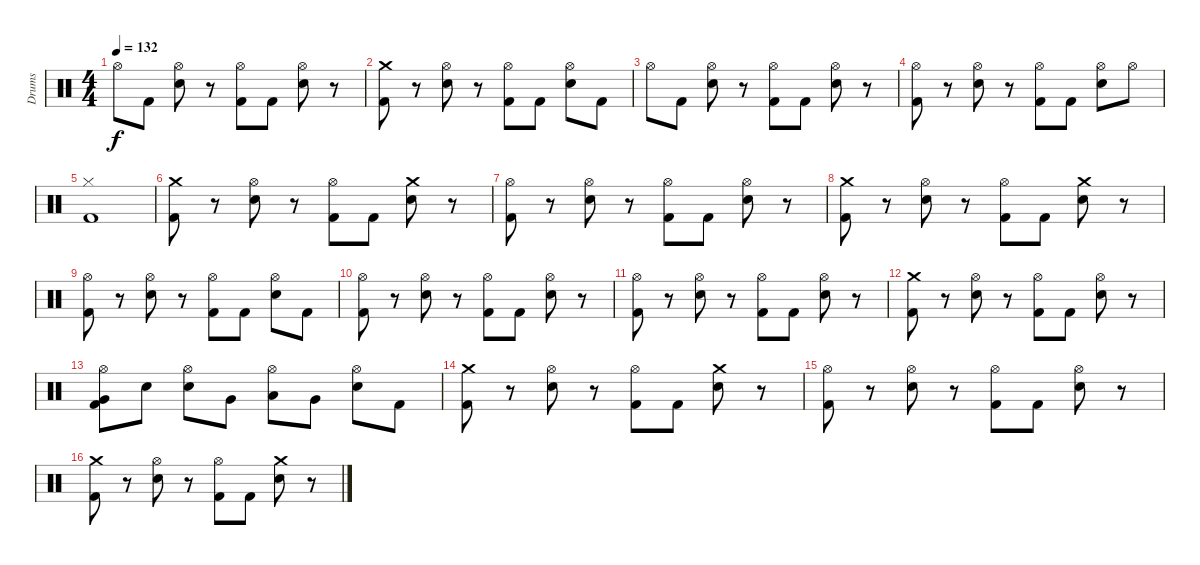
\track ("Drums" "Drums") {instrument percussion}
\staff {score}
\articulation defaults
\ts (4 4)
\tempo 132
\clef neutral
\ks c "Hi-Hat (open)".8{dy f} "Kick (hit) 2".8
("Snare (hit) 2" "Hi-Hat (open)").8 r.8 ("Kick (hit) 2" "Hi-Hat (open)").8 "Kick (hit) 2".8 ("Snare (hit) 2" "Hi-Hat (open)").8 r.8 |
("Kick (hit) 2" "Crash medium (hit)").8 r.8 ("Snare (hit) 2" "Hi-Hat (open)").8 r.8 ("Kick (hit) 2" "Hi-Hat (open)").8 "Kick (hit) 2".8 ("Snare (hit) 2" "Hi-Hat (open)").8 "Kick (hit) 2".8 |
"Hi-Hat (open)".8 "Kick (hit) 2".8 ("Snare (hit) 2" "Hi-Hat (open)").8 r.8 ("Kick (hit) 2" "Hi-Hat (open)").8 "Kick (hit) 2".8 ("Snare (hit) 2" "Hi-Hat (open)").8 r.8 |
("Kick (hit) 2" "Hi-Hat (open)").8 r.8 ("Snare (hit) 2" "Hi-Hat (open)").8 r.8 ("Kick (hit) 2" "Hi-Hat (open)").8 "Kick (hit) 2".8 ("Snare (hit) 2" "Hi-Hat (open)").8 "Hi-Hat (open)".8 |
("Kick (hit) 2" "Hi-Hat (closed)").1 |
("Kick (hit) 2" "Crash medium (hit)").8 r.8 ("Snare (hit) 2" "Hi-Hat (open)").8 r.8 ("Kick (hit) 2" "Hi-Hat (open)").8 "Kick (hit) 2".8 ("Snare (hit) 2" "Crash medium (hit)").8 r.8 |
("Kick (hit) 2" "Hi-Hat (open)").8 r.8 ("Snare (hit) 2" "Hi-Hat (open)").8 r.8 ("Kick (hit) 2" "Hi-Hat (open)").8 "Kick (hit) 2".8 ("Snare (hit) 2" "Hi-Hat (open)").8 r.8 |
("Kick (hit) 2" "Crash medium (hit)").8 r.8 ("Snare (hit) 2" "Hi-Hat (open)").8 r.8 ("Kick (hit) 2" "Hi-Hat (open)").8 "Kick (hit) 2".8 ("Snare (hit) 2" "Crash medium (hit)").8 r.8 |
("Kick (hit) 2" "Hi-Hat (open)").8 r.8 ("Snare (hit) 2" "Hi-Hat (open)").8 r.8 ("Kick (hit) 2" "Hi-Hat (open)").8 "Kick (hit) 2".8 ("Snare (hit) 2" "Hi-Hat (open)").8 "Kick (hit) 2".8 |
("Kick (hit) 2" "Hi-Hat (open)").8 r.8 ("Snare (hit) 2" "Hi-Hat (open)").8 r.8 ("Kick (hit) 2" "Hi-Hat (open)").8 "Kick (hit) 2".8 ("Snare (hit) 2" "Hi-Hat (open)").8 r.8 |
("Kick (hit) 2" "Hi-Hat (open)").8 r.8 ("Snare (hit) 2" "Hi-Hat (open)").8 r.8 ("Kick (hit) 2" "Hi-Hat (open)").8 "Kick (hit) 2".8 ("Snare (hit) 2" "Hi-Hat (open)").8 r.8 |
("Kick (hit) 2" "Crash medium (hit)").8 r.8 ("Snare (hit) 2" "Hi-Hat (open)").8 r.8 ("Kick (hit) 2" "Hi-Hat (open)").8 "Kick (hit) 2".8 ("Snare (hit) 2" "Hi-Hat (open)").8 r.8 |
("Kick (hit) 2" "Very Low Tom (hit)" "Hi-Hat (open)").8 "Snare (hit) 2".8 ("Snare (hit) 2" "Hi-Hat (open)").8 "Very Low Tom (hit)".8 ("Low Floor Tom (hit)" "Hi-Hat (open)").8 "Very Low Tom (hit)".8 ("Snare (hit) 2" "Hi-Hat (open)").8 "Kick (hit) 2".8 |
("Kick (hit) 2" "Crash medium (hit)").8 r.8 ("Snare (hit) 2" "Hi-Hat (open)").8 r.8 ("Kick (hit) 2" "Hi-Hat (open)").8 "Kick (hit) 2".8 ("Snare (hit) 2" "Crash medium (hit)").8 r.8 |
("Kick (hit) 2" "Hi-Hat (open)").8 r.8 ("Snare (hit) 2" "Hi-Hat (open)").8 r.8 ("Kick (hit) 2" "Hi-Hat (open)").8 "Kick (hit) 2".8 ("Snare (hit) 2" "Hi-Hat (open)").8 r.8 |
("Kick (hit) 2" "Crash medium (hit)").8 r.8 ("Snare (hit) 2" "Hi-Hat (open)").8 r.8 ("Kick (hit) 2" "Hi-Hat (open)").8 "Kick (hit) 2".8 ("Snare (hit) 2" "Crash medium (hit)").8 r.8
